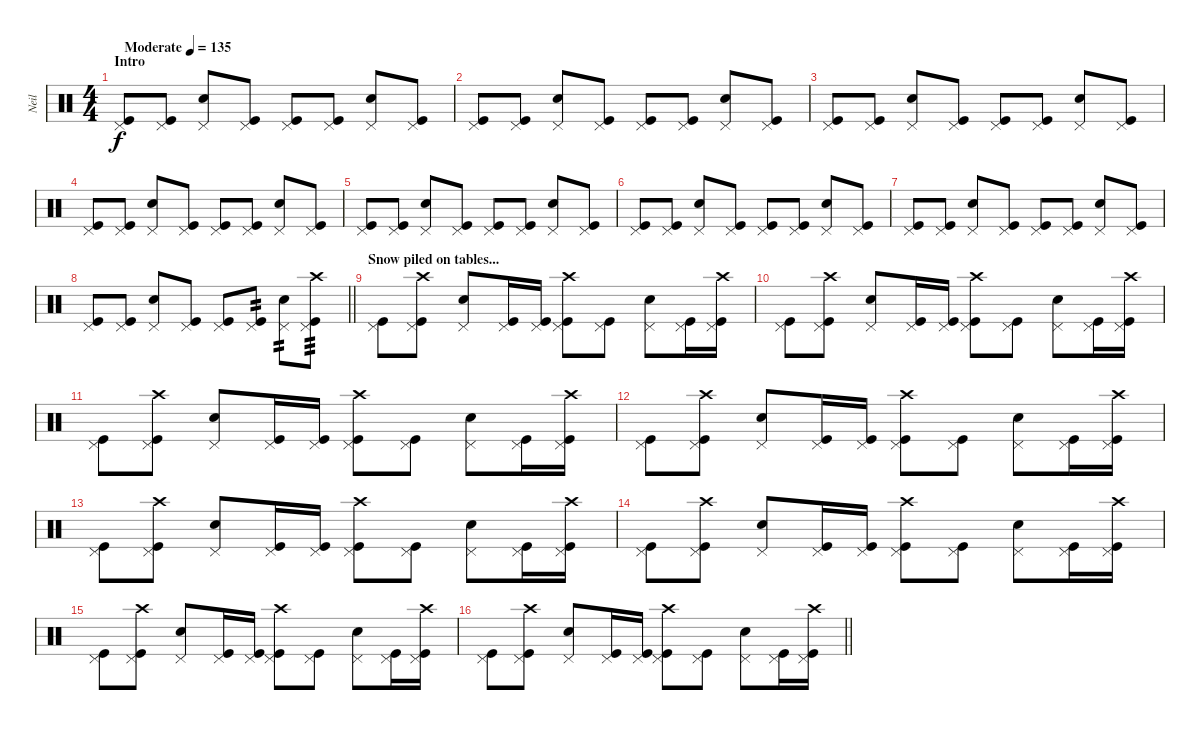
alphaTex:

\track ("Neil" "Neil") {instrument percussion}
\staff {score}
\articulation defaults
\ts (4 4)
\section ("" "Intro")
\tempo (135 "Moderate")
\clef neutral
\ks c
("Pedal Hi-Hat (hit)" "Kick (hit)").8{dy f} ("Pedal Hi-Hat (hit)" "Kick (hit)").8 ("Pedal Hi-Hat (hit)" "Snare (hit) 2").8 ("Pedal Hi-Hat (hit)" "Kick (hit)").8 ("Pedal Hi-Hat (hit)" "Kick (hit)").8 ("Pedal Hi-Hat (hit)" "Kick (hit)").8 ("Pedal Hi-Hat (hit)" "Snare (hit) 2").8 ("Pedal Hi-Hat (hit)" "Kick (hit)").8 |
("Pedal Hi-Hat (hit)" "Kick (hit)").8 ("Pedal Hi-Hat (hit)" "Kick (hit)").8 ("Pedal Hi-Hat (hit)" "Snare (hit) 2").8 ("Pedal Hi-Hat (hit)" "Kick (hit)").8 ("Pedal Hi-Hat (hit)" "Kick (hit)").8 ("Pedal Hi-Hat (hit)" "Kick (hit)").8 ("Pedal Hi-Hat (hit)" "Snare (hit) 2").8 ("Pedal Hi-Hat (hit)" "Kick (hit)").8 |
("Pedal Hi-Hat (hit)" "Kick (hit)").8 ("Pedal Hi-Hat (hit)" "Kick (hit)").8 ("Pedal Hi-Hat (hit)" "Snare (hit) 2").8 ("Pedal Hi-Hat (hit)" "Kick (hit)").8 ("Pedal Hi-Hat (hit)" "Kick (hit)").8 ("Pedal Hi-Hat (hit)" "Kick (hit)").8 ("Pedal Hi-Hat (hit)" "Snare (hit) 2").8 ("Pedal Hi-Hat (hit)" "Kick (hit)").8 |
("Pedal Hi-Hat (hit)" "Kick (hit)").8 ("Pedal Hi-Hat (hit)" "Kick (hit)").8 ("Pedal Hi-Hat (hit)" "Snare (hit) 2").8 ("Pedal Hi-Hat (hit)" "Kick (hit)").8 ("Pedal Hi-Hat (hit)" "Kick (hit)").8 ("Pedal Hi-Hat (hit)" "Kick (hit)").8 ("Pedal Hi-Hat (hit)" "Snare (hit) 2").8 ("Pedal Hi-Hat (hit)" "Kick (hit)").8 |
("Pedal Hi-Hat (hit)" "Kick (hit)").8 ("Pedal Hi-Hat (hit)" "Kick (hit)").8 ("Pedal Hi-Hat (hit)" "Snare (hit) 2").8 ("Pedal Hi-Hat (hit)" "Kick (hit)").8 ("Pedal Hi-Hat (hit)" "Kick (hit)").8 ("Pedal Hi-Hat (hit)" "Kick (hit)").8 ("Pedal Hi-Hat (hit)" "Snare (hit) 2").8 ("Pedal Hi-Hat (hit)" "Kick (hit)").8 |
("Pedal Hi-Hat (hit)" "Kick (hit)").8 ("Pedal Hi-Hat (hit)" "Kick (hit)").8 ("Pedal Hi-Hat (hit)" "Snare (hit) 2").8 ("Pedal Hi-Hat (hit)" "Kick (hit)").8 ("Pedal Hi-Hat (hit)" "Kick (hit)").8 ("Pedal Hi-Hat (hit)" "Kick (hit)").8 ("Pedal Hi-Hat (hit)" "Snare (hit) 2").8 ("Pedal Hi-Hat (hit)" "Kick (hit)").8 |
("Pedal Hi-Hat (hit)" "Kick (hit)").8 ("Pedal Hi-Hat (hit)" "Kick (hit)").8 ("Pedal Hi-Hat (hit)" "Snare (hit) 2").8 ("Pedal Hi-Hat (hit)" "Kick (hit)").8 ("Pedal Hi-Hat (hit)" "Kick (hit)").8 ("Pedal Hi-Hat (hit)" "Kick (hit)").8 ("Pedal Hi-Hat (hit)" "Snare (hit) 2").8 ("Pedal Hi-Hat (hit)" "Kick (hit)").8 |
\barLineRight lightlight
("Pedal Hi-Hat (hit)" "Kick (hit)").8 ("Pedal Hi-Hat (hit)" "Kick (hit)").8 ("Pedal Hi-Hat (hit)" "Snare (hit) 2").8 ("Pedal Hi-Hat (hit)" "Kick (hit)").8 ("Pedal Hi-Hat (hit)" "Kick (hit)").8 ("Pedal Hi-Hat (hit)" "Kick (hit)").8{tp 2} ("Pedal Hi-Hat (hit)" "Snare (hit) 2").8{tp 2} ("Crash high (hit)" "Pedal Hi-Hat (hit)" "Kick (hit)").8{tp 3} |
\section ("" "Snow piled on tables...")
("Pedal Hi-Hat (hit)" "Kick (hit)").8 ("Crash high (hit)" "Pedal Hi-Hat (hit)" "Kick (hit)").8 ("Pedal Hi-Hat (hit)" "Snare (hit) 2").8 ("Pedal Hi-Hat (hit)" "Kick (hit)").16 ("Pedal Hi-Hat (hit)" "Kick (hit)").16 ("Crash high (hit)" "Pedal Hi-Hat (hit)" "Kick (hit)").8 ("Pedal Hi-Hat (hit)" "Kick (hit)").8 ("Pedal Hi-Hat (hit)" "Snare (hit) 2").8 ("Pedal Hi-Hat (hit)" "Kick (hit)").16 ("Crash high (hit)" "Pedal Hi-Hat (hit)" "Kick (hit)").16 |
("Pedal Hi-Hat (hit)" "Kick (hit)").8 ("Crash high (hit)" "Pedal Hi-Hat (hit)" "Kick (hit)").8 ("Pedal Hi-Hat (hit)" "Snare (hit) 2").8 ("Pedal Hi-Hat (hit)" "Kick (hit)").16 ("Pedal Hi-Hat (hit)" "Kick (hit)").16 ("Crash high (hit)" "Pedal Hi-Hat (hit)" "Kick (hit)").8 ("Pedal Hi-Hat (hit)" "Kick (hit)").8 ("Pedal Hi-Hat (hit)" "Snare (hit) 2").8 ("Pedal Hi-Hat (hit)" "Kick (hit)").16 ("Crash high (hit)" "Pedal Hi-Hat (hit)" "Kick (hit)").16 |
("Pedal Hi-Hat (hit)" "Kick (hit)").8 ("Crash high (hit)" "Pedal Hi-Hat (hit)" "Kick (hit)").8 ("Pedal Hi-Hat (hit)" "Snare (hit) 2").8 ("Pedal Hi-Hat (hit)" "Kick (hit)").16 ("Pedal Hi-Hat (hit)" "Kick (hit)").16 ("Crash high (hit)" "Pedal Hi-Hat (hit)" "Kick (hit)").8 ("Pedal Hi-Hat (hit)" "Kick (hit)").8 ("Pedal Hi-Hat (hit)" "Snare (hit) 2").8 ("Pedal Hi-Hat (hit)" "Kick (hit)").16 ("Crash high (hit)" "Pedal Hi-Hat (hit)" "Kick (hit)").16 |
("Pedal Hi-Hat (hit)" "Kick (hit)").8 ("Crash high (hit)" "Pedal Hi-Hat (hit)" "Kick (hit)").8 ("Pedal Hi-Hat (hit)" "Snare (hit) 2").8 ("Pedal Hi-Hat (hit)" "Kick (hit)").16 ("Pedal Hi-Hat (hit)" "Kick (hit)").16 ("Crash high (hit)" "Pedal Hi-Hat (hit)" "Kick (hit)").8 ("Pedal Hi-Hat (hit)" "Kick (hit)").8 ("Pedal Hi-Hat (hit)" "Snare (hit) 2").8 ("Pedal Hi-Hat (hit)" "Kick (hit)").16 ("Crash high (hit)" "Pedal Hi-Hat (hit)" "Kick (hit)").16 |
("Pedal Hi-Hat (hit)" "Kick (hit)").8 ("Crash high (hit)" "Pedal Hi-Hat (hit)" "Kick (hit)").8 ("Pedal Hi-Hat (hit)" "Snare (hit) 2").8 ("Pedal Hi-Hat (hit)" "Kick (hit)").16 ("Pedal Hi-Hat (hit)" "Kick (hit)").16 ("Crash high (hit)" "Pedal Hi-Hat (hit)" "Kick (hit)").8 ("Pedal Hi-Hat (hit)" "Kick (hit)").8 ("Pedal Hi-Hat (hit)" "Snare (hit) 2").8 ("Pedal Hi-Hat (hit)" "Kick (hit)").16 ("Crash high (hit)" "Pedal Hi-Hat (hit)" "Kick (hit)").16 |
("Pedal Hi-Hat (hit)" "Kick (hit)").8 ("Crash high (hit)" "Pedal Hi-Hat (hit)" "Kick (hit)").8 ("Pedal Hi-Hat (hit)" "Snare (hit) 2").8 ("Pedal Hi-Hat (hit)" "Kick (hit)").16 ("Pedal Hi-Hat (hit)" "Kick (hit)").16 ("Crash high (hit)" "Pedal Hi-Hat (hit)" "Kick (hit)").8 ("Pedal Hi-Hat (hit)" "Kick (hit)").8 ("Pedal Hi-Hat (hit)" "Snare (hit) 2").8 ("Pedal Hi-Hat (hit)" "Kick (hit)").16 ("Crash high (hit)" "Pedal Hi-Hat (hit)" "Kick (hit)").16 |
("Pedal Hi-Hat (hit)" "Kick (hit)").8 ("Crash high (hit)" "Pedal Hi-Hat (hit)" "Kick (hit)").8 ("Pedal Hi-Hat (hit)" "Snare (hit) 2").8 ("Pedal Hi-Hat (hit)" "Kick (hit)").16 ("Pedal Hi-Hat (hit)" "Kick (hit)").16 ("Crash high (hit)" "Pedal Hi-Hat (hit)" "Kick (hit)").8 ("Pedal Hi-Hat (hit)" "Kick (hit)").8 ("Pedal Hi-Hat (hit)" "Snare (hit) 2").8 ("Pedal Hi-Hat (hit)" "Kick (hit)").16 ("Crash high (hit)" "Pedal Hi-Hat (hit)" "Kick (hit)").16 |
\barLineRight lightlight
("Pedal Hi-Hat (hit)" "Kick (hit)").8 ("Crash high (hit)" "Pedal Hi-Hat (hit)" "Kick (hit)").8 ("Pedal Hi-Hat (hit)" "Snare (hit) 2").8 ("Pedal Hi-Hat (hit)" "Kick (hit)").16 ("Pedal Hi-Hat (hit)" "Kick (hit)").16 ("Crash high (hit)" "Pedal Hi-Hat (hit)" "Kick (hit)").8 ("Pedal Hi-Hat (hit)" "Kick (hit)").8 ("Pedal Hi-Hat (hit)" "Snare (hit) 2").8 ("Pedal Hi-Hat (hit)" "Kick (hit)").16 ("Crash high (hit)" "Pedal Hi-Hat (hit)" "Kick (hit)").16
